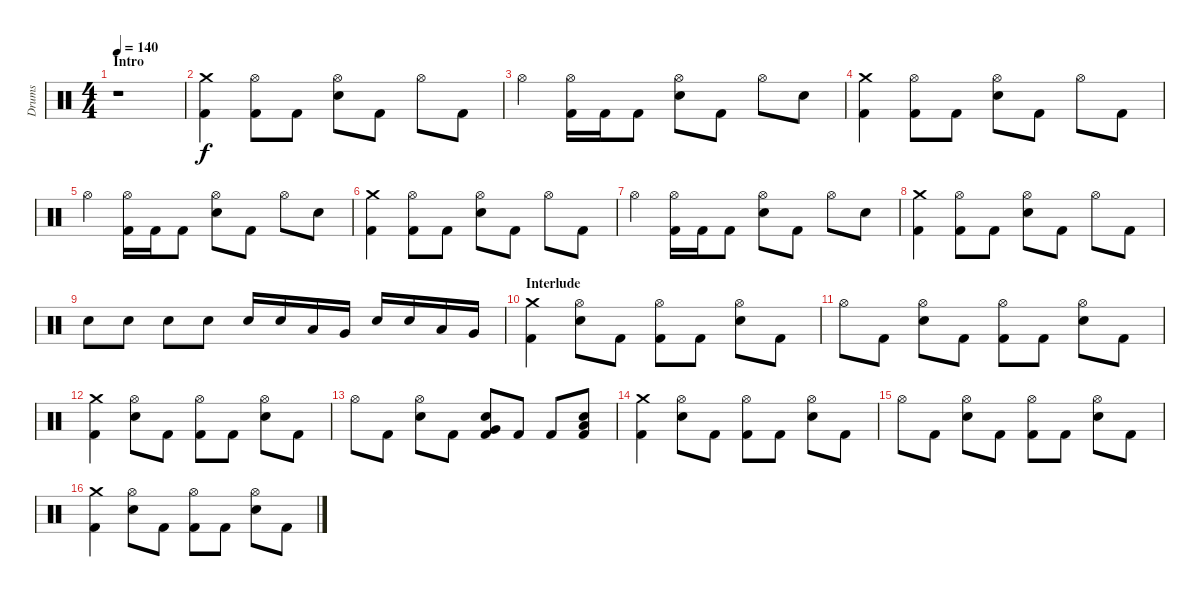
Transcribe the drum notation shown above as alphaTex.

\track ("Drums" "Drums") {instrument percussion}
\staff {score}
\articulation defaults
\ts (4 4)
\section ("" "Intro")
\tempo 140
\clef neutral
\ks c
r.1{dy f} |
("Crash medium (hit)" "Kick (hit) 2").4 ("Hi-Hat (open)" "Kick (hit) 2").8 "Kick (hit) 2".8 ("Hi-Hat (open)" "Electric Snare (hit)").8 "Kick (hit) 2".8 "Hi-Hat (open)".8 "Kick (hit) 2".8 |
"Hi-Hat (open)".4 ("Hi-Hat (open)" "Kick (hit) 2").16 "Kick (hit) 2".16 "Kick (hit) 2".8 ("Hi-Hat (open)" "Electric Snare (hit)").8 "Kick (hit) 2".8 "Hi-Hat (open)".8 "Electric Snare (hit)".8 |
("Crash medium (hit)" "Kick (hit) 2").4 ("Hi-Hat (open)" "Kick (hit) 2").8 "Kick (hit) 2".8 ("Hi-Hat (open)" "Electric Snare (hit)").8 "Kick (hit) 2".8 "Hi-Hat (open)".8 "Kick (hit) 2".8 |
"Hi-Hat (open)".4 ("Hi-Hat (open)" "Kick (hit) 2").16 "Kick (hit) 2".16 "Kick (hit) 2".8 ("Hi-Hat (open)" "Electric Snare (hit)").8 "Kick (hit) 2".8 "Hi-Hat (open)".8 "Electric Snare (hit)".8 |
("Crash medium (hit)" "Kick (hit) 2").4 ("Hi-Hat (open)" "Kick (hit) 2").8 "Kick (hit) 2".8 ("Hi-Hat (open)" "Electric Snare (hit)").8 "Kick (hit) 2".8 "Hi-Hat (open)".8 "Kick (hit) 2".8 |
"Hi-Hat (open)".4 ("Hi-Hat (open)" "Kick (hit) 2").16 "Kick (hit) 2".16 "Kick (hit) 2".8 ("Hi-Hat (open)" "Electric Snare (hit)").8 "Kick (hit) 2".8 "Hi-Hat (open)".8 "Electric Snare (hit)".8 |
("Crash medium (hit)" "Kick (hit) 2").4 ("Hi-Hat (open)" "Kick (hit) 2").8 "Kick (hit) 2".8 ("Hi-Hat (open)" "Electric Snare (hit)").8 "Kick (hit) 2".8 "Hi-Hat (open)".8 "Kick (hit) 2".8 |
"Electric Snare (hit)".8 "Electric Snare (hit)".8 "Electric Snare (hit)".8 "Electric Snare (hit)".8 "Electric Snare (hit)".16 "Electric Snare (hit)".16 "Low Tom (hit)".16 "Very Low Tom (hit)".16 "Electric Snare (hit)".16 "Electric Snare (hit)".16 "Low Tom (hit)".16 "Very Low Tom (hit)".16 |
\section ("" "Interlude")
("Crash medium (hit)" "Kick (hit) 2").4 ("Hi-Hat (open)" "Electric Snare (hit)").8 "Kick (hit) 2".8 ("Hi-Hat (open)" "Kick (hit) 2").8 "Kick (hit) 2".8 ("Hi-Hat (open)" "Electric Snare (hit)").8 "Kick (hit) 2".8 |
"Hi-Hat (open)".8 "Kick (hit) 2".8 ("Hi-Hat (open)" "Electric Snare (hit)").8 "Kick (hit) 2".8 ("Hi-Hat (open)" "Kick (hit) 2").8 "Kick (hit) 2".8 ("Hi-Hat (open)" "Electric Snare (hit)").8 "Kick (hit) 2".8 |
("Crash medium (hit)" "Kick (hit) 2").4 ("Hi-Hat (open)" "Electric Snare (hit)").8 "Kick (hit) 2".8 ("Hi-Hat (open)" "Kick (hit) 2").8 "Kick (hit) 2".8 ("Hi-Hat (open)" "Electric Snare (hit)").8 "Kick (hit) 2".8 |
"Hi-Hat (open)".8 "Kick (hit) 2".8 ("Hi-Hat (open)" "Electric Snare (hit)").8 "Kick (hit) 2".8 ("Very Low Tom (hit)" "Electric Snare (hit)" "Kick (hit) 2").8 "Kick (hit) 2".8 "Kick (hit) 2".8 ("Low Tom (hit)" "Electric Snare (hit)" "Kick (hit) 2").8 |
("Crash medium (hit)" "Kick (hit) 2").4 ("Hi-Hat (open)" "Electric Snare (hit)").8 "Kick (hit) 2".8 ("Hi-Hat (open)" "Kick (hit) 2").8 "Kick (hit) 2".8 ("Hi-Hat (open)" "Electric Snare (hit)").8 "Kick (hit) 2".8 |
"Hi-Hat (open)".8 "Kick (hit) 2".8 ("Hi-Hat (open)" "Electric Snare (hit)").8 "Kick (hit) 2".8 ("Hi-Hat (open)" "Kick (hit) 2").8 "Kick (hit) 2".8 ("Hi-Hat (open)" "Electric Snare (hit)").8 "Kick (hit) 2".8 |
("Crash medium (hit)" "Kick (hit) 2").4 ("Hi-Hat (open)" "Electric Snare (hit)").8 "Kick (hit) 2".8 ("Hi-Hat (open)" "Kick (hit) 2").8 "Kick (hit) 2".8 ("Hi-Hat (open)" "Electric Snare (hit)").8 "Kick (hit) 2".8
